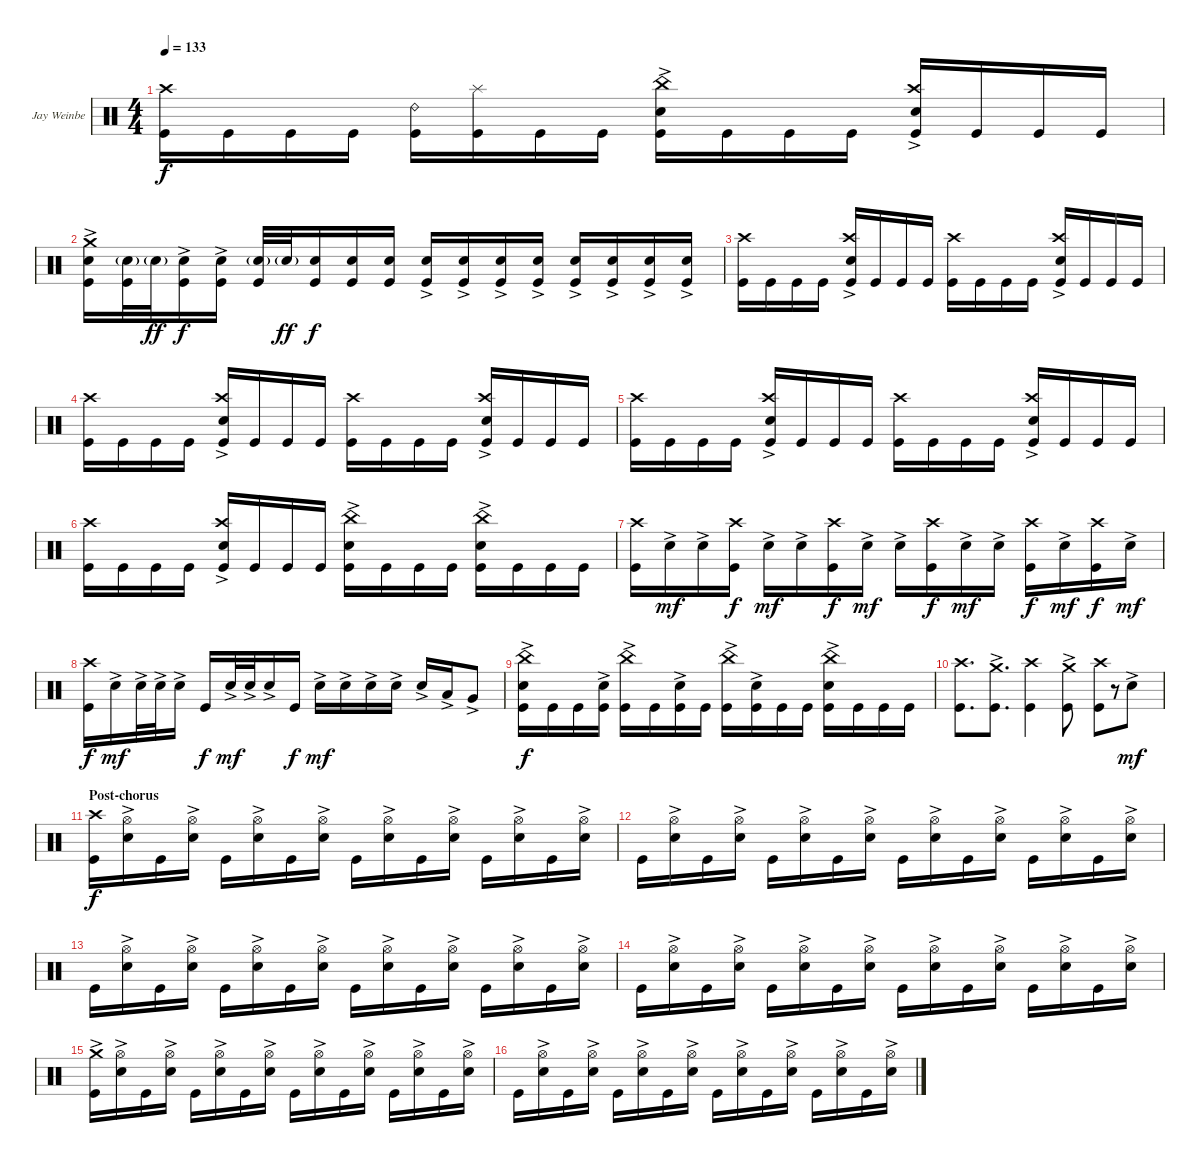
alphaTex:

\bracketExtendMode groupsimilarinstruments
\firstSystemTrackNameOrientation horizontal
\otherSystemsTrackNameOrientation horizontal
\track ("Jay Weinberg" "Jay Weinbe") {instrument percussion}
\staff {score}
\articulation defaults
\ts (4 4)
\tempo 133
\clef neutral
\ks c
("Kick (hit)" "Crash high (hit)").16{dy f} "Kick (hit)".16 "Kick (hit)".16 "Kick (hit)".16 ("Kick (hit)" "Ride (bell) 2").16 ("Kick (hit)" "Splash (hit)").16 "Kick (hit)".16 "Kick (hit)".16 ("Kick (hit)" "Snare (hit) 2"{ac} "China (hit)"{ac}).16 "Kick (hit)".16 "Kick (hit)".16 "Kick (hit)".16 ("Kick (hit)" "Crash high (hit)" "Snare (hit) 2"{ac}).16 "Kick (hit)".16 "Kick (hit)".16 "Kick (hit)".16 |
("Kick (hit)" "Snare (hit) 2"{ac} "Crash medium (hit)"{ac}).16 ("Kick (hit)" "Snare (hit) 2"{g}).32 "Snare (hit) 2"{g}.32{dy ff} ("Kick (hit)" "Snare (hit) 2"{ac}).16{dy f} ("Kick (hit)" "Snare (hit) 2"{ac}).16 ("Kick (hit)" "Snare (hit) 2"{g}).32 "Snare (hit) 2"{g}.32{dy ff} ("Kick (hit)" "Snare (hit) 2").16{dy f} ("Kick (hit)" "Snare (hit) 2").16 ("Kick (hit)" "Snare (hit) 2").16 ("Kick (hit)" "Snare (hit) 2"{ac}).16 ("Kick (hit)" "Snare (hit) 2"{ac}).16 ("Kick (hit)" "Snare (hit) 2"{ac}).16 ("Kick (hit)" "Snare (hit) 2"{ac}).16 ("Kick (hit)" "Snare (hit) 2"{ac}).16 ("Kick (hit)" "Snare (hit) 2"{ac}).16 ("Kick (hit)" "Snare (hit) 2"{ac}).16 ("Kick (hit)" "Snare (hit) 2"{ac}).16 |
("Kick (hit)" "Crash high (hit)").16 "Kick (hit)".16 "Kick (hit)".16 "Kick (hit)".16 ("Kick (hit)" "Crash high (hit)" "Snare (hit) 2"{ac}).16 "Kick (hit)".16 "Kick (hit)".16 "Kick (hit)".16 ("Kick (hit)" "Crash high (hit)").16 "Kick (hit)".16 "Kick (hit)".16 "Kick (hit)".16 ("Kick (hit)" "Crash high (hit)" "Snare (hit) 2"{ac}).16 "Kick (hit)".16 "Kick (hit)".16 "Kick (hit)".16 |
("Kick (hit)" "Crash high (hit)").16 "Kick (hit)".16 "Kick (hit)".16 "Kick (hit)".16 ("Kick (hit)" "Crash high (hit)" "Snare (hit) 2"{ac}).16 "Kick (hit)".16 "Kick (hit)".16 "Kick (hit)".16 ("Kick (hit)" "Crash high (hit)").16 "Kick (hit)".16 "Kick (hit)".16 "Kick (hit)".16 ("Kick (hit)" "Crash high (hit)" "Snare (hit) 2"{ac}).16 "Kick (hit)".16 "Kick (hit)".16 "Kick (hit)".16 |
("Kick (hit)" "Crash high (hit)").16 "Kick (hit)".16 "Kick (hit)".16 "Kick (hit)".16 ("Kick (hit)" "Crash high (hit)" "Snare (hit) 2"{ac}).16 "Kick (hit)".16 "Kick (hit)".16 "Kick (hit)".16 ("Kick (hit)" "Crash high (hit)").16 "Kick (hit)".16 "Kick (hit)".16 "Kick (hit)".16 ("Kick (hit)" "Crash high (hit)" "Snare (hit) 2"{ac}).16 "Kick (hit)".16 "Kick (hit)".16 "Kick (hit)".16 |
("Kick (hit)" "Crash high (hit)").16 "Kick (hit)".16 "Kick (hit)".16 "Kick (hit)".16 ("Kick (hit)" "Crash high (hit)" "Snare (hit) 2"{ac}).16 "Kick (hit)".16 "Kick (hit)".16 "Kick (hit)".16 ("Kick (hit)" "Snare (hit) 2"{ac} "China (hit)"{ac}).16 "Kick (hit)".16 "Kick (hit)".16 "Kick (hit)".16 ("Kick (hit)" "Snare (hit) 2"{ac} "China (hit)"{ac}).16 "Kick (hit)".16 "Kick (hit)".16 "Kick (hit)".16 |
("Kick (hit)" "Crash high (hit)").16 "Snare (hit) 2"{ac}.16{dy mf} "Snare (hit) 2"{ac}.16 ("Kick (hit)" "Crash high (hit)").16{dy f} "Snare (hit) 2"{ac}.16{dy mf} "Snare (hit) 2"{ac}.16 ("Kick (hit)" "Crash high (hit)").16{dy f} "Snare (hit) 2"{ac}.16{dy mf} "Snare (hit) 2"{ac}.16 ("Kick (hit)" "Crash high (hit)").16{dy f} "Snare (hit) 2"{ac}.16{dy mf} "Snare (hit) 2"{ac}.16 ("Kick (hit)" "Crash high (hit)").16{dy f} "Snare (hit) 2"{ac}.16{dy mf} ("Kick (hit)" "Crash high (hit)").16{dy f} "Snare (hit) 2"{ac}.16{dy mf} |
("Kick (hit)" "Crash high (hit)").16{dy f} "Snare (hit) 2"{ac}.16{dy mf} "Snare (hit) 2"{ac}.32 "Snare (hit) 2"{ac}.32 "Snare (hit) 2"{ac}.16 "Kick (hit)".16{dy f} "Snare (hit) 2"{ac}.32{dy mf} "Snare (hit) 2"{ac}.32 "Snare (hit) 2"{ac}.16 "Kick (hit)".16{dy f} "Snare (hit) 2"{ac}.16{dy mf} "Snare (hit) 2"{ac}.16 "Snare (hit) 2"{ac}.16 "Snare (hit) 2"{ac}.16 "Snare (hit) 2"{ac}.16 "Low Tom (hit)"{ac}.16 "Very Low Tom (hit)"{ac}.8 |
("Kick (hit)" "China (hit)"{ac} "Snare (hit) 2"{ac}).16{dy f} "Kick (hit)".16 "Kick (hit)".16 ("Kick (hit)" "Snare (hit) 2"{ac}).16 ("Kick (hit)" "China (hit)"{ac}).16 "Kick (hit)".16 ("Kick (hit)" "Snare (hit) 2"{ac}).16 "Kick (hit)".16 ("Kick (hit)" "China (hit)"{ac}).16 ("Kick (hit)" "Snare (hit) 2"{ac}).16 "Kick (hit)".16 "Kick (hit)".16 ("Kick (hit)" "China (hit)"{ac} "Snare (hit) 2"{ac}).16 "Kick (hit)".16 "Kick (hit)".16 "Kick (hit)".16 |
("Kick (hit)" "Crash high (hit)").8{d} ("Kick (hit)" "Crash medium (hit)"{ac}).8{d} ("Kick (hit)" "Crash high (hit)").4 ("Kick (hit)" "Crash medium (hit)"{ac}).8 ("Kick (hit)" "Crash high (hit)").8 r.8{gr} "Snare (hit) 2"{ac}.8{dy mf} |
\section ("" "Post-chorus")
("Crash high (hit)" "Kick (hit)").16{dy f} ("Snare (hit) 2"{ac} "Hi-Hat (open)").16 "Kick (hit)".16 ("Snare (hit) 2"{ac} "Hi-Hat (open)").16 "Kick (hit)".16 ("Snare (hit) 2"{ac} "Hi-Hat (open)").16 "Kick (hit)".16 ("Snare (hit) 2"{ac} "Hi-Hat (open)").16 "Kick (hit)".16 ("Snare (hit) 2"{ac} "Hi-Hat (open)").16 "Kick (hit)".16 ("Snare (hit) 2"{ac} "Hi-Hat (open)").16 "Kick (hit)".16 ("Snare (hit) 2"{ac} "Hi-Hat (open)").16 "Kick (hit)".16 ("Snare (hit) 2"{ac} "Hi-Hat (open)").16 |
"Kick (hit)".16 ("Snare (hit) 2"{ac} "Hi-Hat (open)").16 "Kick (hit)".16 ("Snare (hit) 2"{ac} "Hi-Hat (open)").16 "Kick (hit)".16 ("Snare (hit) 2"{ac} "Hi-Hat (open)").16 "Kick (hit)".16 ("Snare (hit) 2"{ac} "Hi-Hat (open)").16 "Kick (hit)".16 ("Snare (hit) 2"{ac} "Hi-Hat (open)").16 "Kick (hit)".16 ("Snare (hit) 2"{ac} "Hi-Hat (open)").16 "Kick (hit)".16 ("Snare (hit) 2"{ac} "Hi-Hat (open)").16 "Kick (hit)".16 ("Snare (hit) 2"{ac} "Hi-Hat (open)").16 |
"Kick (hit)".16 ("Snare (hit) 2"{ac} "Hi-Hat (open)").16 "Kick (hit)".16 ("Snare (hit) 2"{ac} "Hi-Hat (open)").16 "Kick (hit)".16 ("Snare (hit) 2"{ac} "Hi-Hat (open)").16 "Kick (hit)".16 ("Snare (hit) 2"{ac} "Hi-Hat (open)").16 "Kick (hit)".16 ("Snare (hit) 2"{ac} "Hi-Hat (open)").16 "Kick (hit)".16 ("Snare (hit) 2"{ac} "Hi-Hat (open)").16 "Kick (hit)".16 ("Snare (hit) 2"{ac} "Hi-Hat (open)").16 "Kick (hit)".16 ("Snare (hit) 2"{ac} "Hi-Hat (open)").16 |
"Kick (hit)".16 ("Snare (hit) 2"{ac} "Hi-Hat (open)").16 "Kick (hit)".16 ("Snare (hit) 2"{ac} "Hi-Hat (open)").16 "Kick (hit)".16 ("Snare (hit) 2"{ac} "Hi-Hat (open)").16 "Kick (hit)".16 ("Snare (hit) 2"{ac} "Hi-Hat (open)").16 "Kick (hit)".16 ("Snare (hit) 2"{ac} "Hi-Hat (open)").16 "Kick (hit)".16 ("Snare (hit) 2"{ac} "Hi-Hat (open)").16 "Kick (hit)".16 ("Snare (hit) 2"{ac} "Hi-Hat (open)").16 "Kick (hit)".16 ("Snare (hit) 2"{ac} "Hi-Hat (open)").16 |
("Kick (hit)" "Crash medium (hit)"{ac}).16 ("Snare (hit) 2"{ac} "Hi-Hat (open)").16 "Kick (hit)".16 ("Snare (hit) 2"{ac} "Hi-Hat (open)").16 "Kick (hit)".16 ("Snare (hit) 2"{ac} "Hi-Hat (open)").16 "Kick (hit)".16 ("Snare (hit) 2"{ac} "Hi-Hat (open)").16 "Kick (hit)".16 ("Snare (hit) 2"{ac} "Hi-Hat (open)").16 "Kick (hit)".16 ("Snare (hit) 2"{ac} "Hi-Hat (open)").16 "Kick (hit)".16 ("Snare (hit) 2"{ac} "Hi-Hat (open)").16 "Kick (hit)".16 ("Snare (hit) 2"{ac} "Hi-Hat (open)").16 |
"Kick (hit)".16 ("Snare (hit) 2"{ac} "Hi-Hat (open)").16 "Kick (hit)".16 ("Snare (hit) 2"{ac} "Hi-Hat (open)").16 "Kick (hit)".16 ("Snare (hit) 2"{ac} "Hi-Hat (open)").16 "Kick (hit)".16 ("Snare (hit) 2"{ac} "Hi-Hat (open)").16 "Kick (hit)".16 ("Snare (hit) 2"{ac} "Hi-Hat (open)").16 "Kick (hit)".16 ("Snare (hit) 2"{ac} "Hi-Hat (open)").16 "Kick (hit)".16 ("Snare (hit) 2"{ac} "Hi-Hat (open)").16 "Kick (hit)".16 ("Snare (hit) 2"{ac} "Hi-Hat (open)").16
